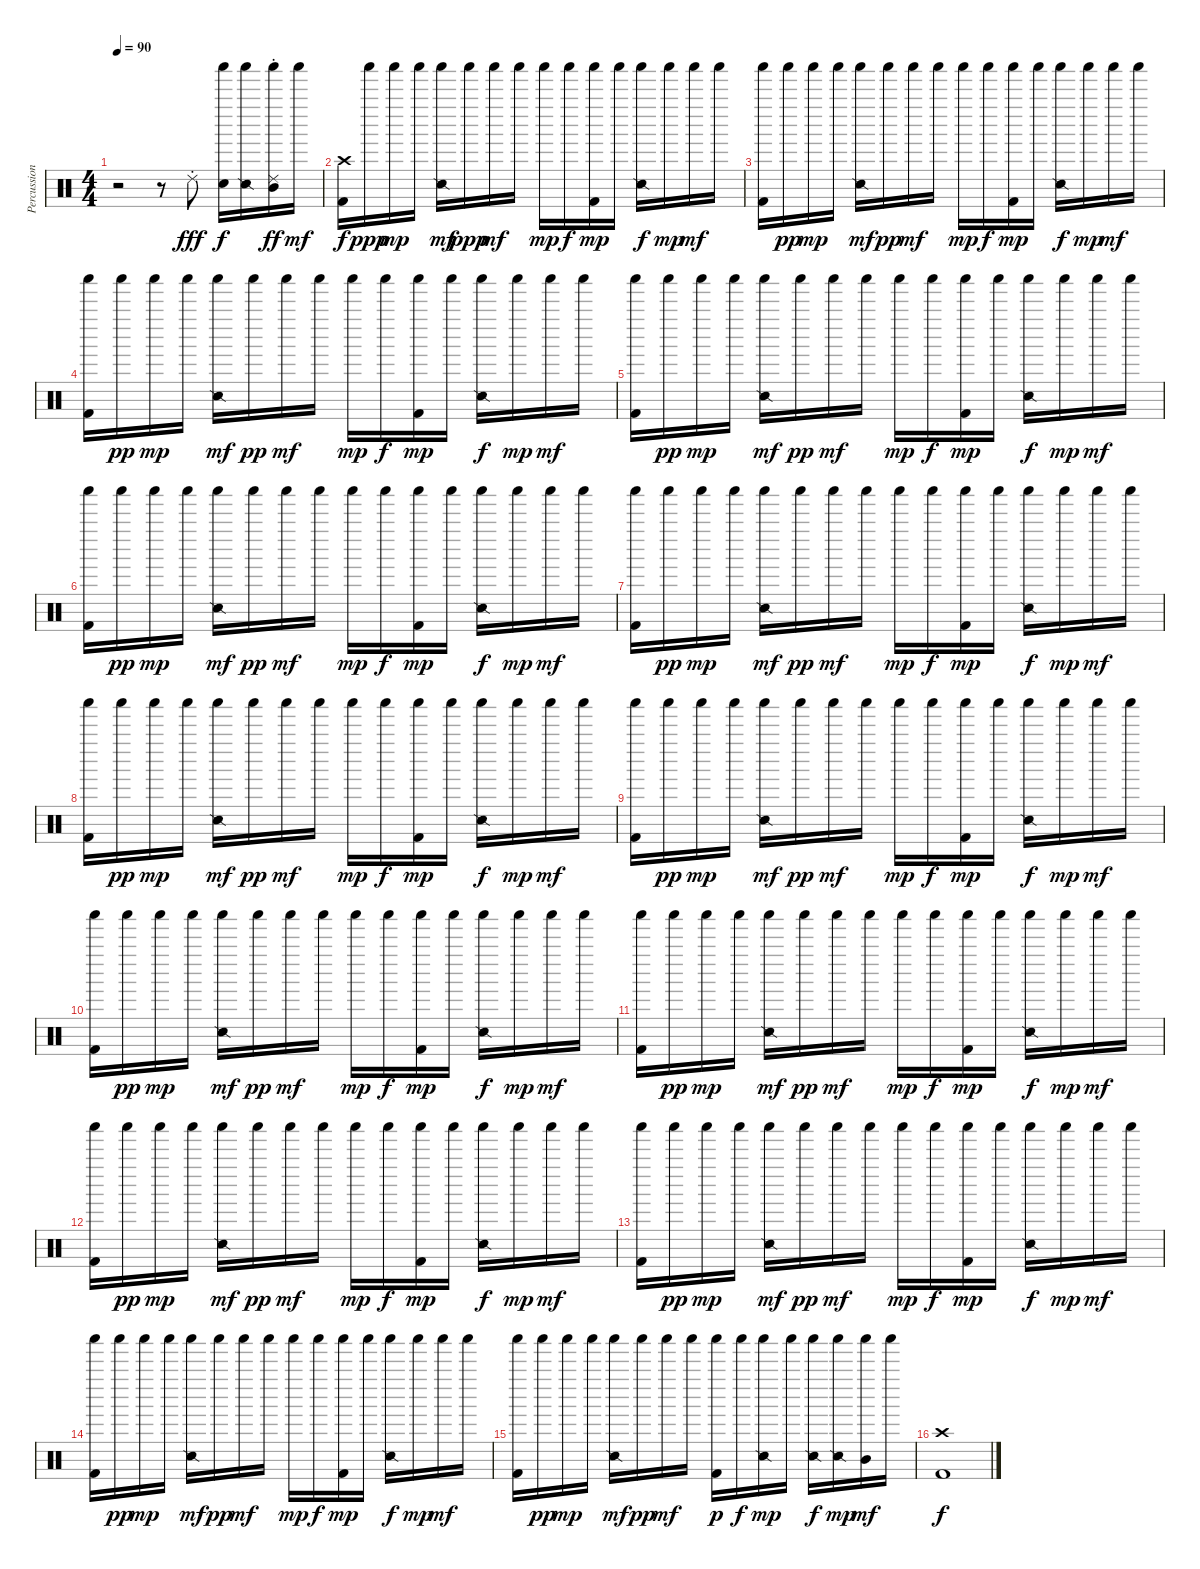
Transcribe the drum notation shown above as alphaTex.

\track ("Percussions" "Percussion") {instrument percussion}
\staff {score}
\articulation defaults
\ts (4 4)
\tempo 90
\clef neutral
\ks c
r.2{dy fff} r.8 "Ride (choke) 2".8 ("Shaker (hit)" "Metronome (bell)").16{dy f} ("Shaker (hit)" "Snare (side stick) 2").16 ("Shaker (hit)" "Ride (choke) 2" "Mid Tom (hit)").16{dy ff} "Shaker (hit)".16{dy mf} |
("Crash high (hit)" "Kick (hit) 2").16{dy f} "Shaker (hit)".16{dy ppp} "Shaker (hit)".16{dy mp} "Shaker (hit)".16 ("Shaker (hit)" "Snare (side stick) 2").16{dy mf} "Shaker (hit)".16{dy ppp} "Shaker (hit)".16{dy mf} "Shaker (hit)".16 "Shaker (hit)".16{dy mp} "Shaker (hit)".16{dy f} ("Shaker (hit)" "Kick (hit) 2").16{dy mp} "Shaker (hit)".16 ("Shaker (hit)" "Snare (side stick) 2").16{dy f} "Shaker (hit)".16{dy mp} "Shaker (hit)".16{dy mf} "Shaker (hit)".16 |
("Shaker (hit)" "Kick (hit) 2").16 "Shaker (hit)".16{dy pp} "Shaker (hit)".16{dy mp} "Shaker (hit)".16 ("Shaker (hit)" "Snare (side stick) 2").16{dy mf} "Shaker (hit)".16{dy pp} "Shaker (hit)".16{dy mf} "Shaker (hit)".16 "Shaker (hit)".16{dy mp} "Shaker (hit)".16{dy f} ("Shaker (hit)" "Kick (hit) 2").16{dy mp} "Shaker (hit)".16 ("Shaker (hit)" "Snare (side stick) 2").16{dy f} "Shaker (hit)".16{dy mp} "Shaker (hit)".16{dy mf} "Shaker (hit)".16 |
("Shaker (hit)" "Kick (hit) 2").16 "Shaker (hit)".16{dy pp} "Shaker (hit)".16{dy mp} "Shaker (hit)".16 ("Shaker (hit)" "Snare (side stick) 2").16{dy mf} "Shaker (hit)".16{dy pp} "Shaker (hit)".16{dy mf} "Shaker (hit)".16 "Shaker (hit)".16{dy mp} "Shaker (hit)".16{dy f} ("Shaker (hit)" "Kick (hit) 2").16{dy mp} "Shaker (hit)".16 ("Shaker (hit)" "Snare (side stick) 2").16{dy f} "Shaker (hit)".16{dy mp} "Shaker (hit)".16{dy mf} "Shaker (hit)".16 |
("Shaker (hit)" "Kick (hit) 2").16 "Shaker (hit)".16{dy pp} "Shaker (hit)".16{dy mp} "Shaker (hit)".16 ("Shaker (hit)" "Snare (side stick) 2").16{dy mf} "Shaker (hit)".16{dy pp} "Shaker (hit)".16{dy mf} "Shaker (hit)".16 "Shaker (hit)".16{dy mp} "Shaker (hit)".16{dy f} ("Shaker (hit)" "Kick (hit) 2").16{dy mp} "Shaker (hit)".16 ("Shaker (hit)" "Snare (side stick) 2").16{dy f} "Shaker (hit)".16{dy mp} "Shaker (hit)".16{dy mf} "Shaker (hit)".16 |
("Shaker (hit)" "Kick (hit) 2").16 "Shaker (hit)".16{dy pp} "Shaker (hit)".16{dy mp} "Shaker (hit)".16 ("Shaker (hit)" "Snare (side stick) 2").16{dy mf} "Shaker (hit)".16{dy pp} "Shaker (hit)".16{dy mf} "Shaker (hit)".16 "Shaker (hit)".16{dy mp} "Shaker (hit)".16{dy f} ("Shaker (hit)" "Kick (hit) 2").16{dy mp} "Shaker (hit)".16 ("Shaker (hit)" "Snare (side stick) 2").16{dy f} "Shaker (hit)".16{dy mp} "Shaker (hit)".16{dy mf} "Shaker (hit)".16 |
("Shaker (hit)" "Kick (hit) 2").16 "Shaker (hit)".16{dy pp} "Shaker (hit)".16{dy mp} "Shaker (hit)".16 ("Shaker (hit)" "Snare (side stick) 2").16{dy mf} "Shaker (hit)".16{dy pp} "Shaker (hit)".16{dy mf} "Shaker (hit)".16 "Shaker (hit)".16{dy mp} "Shaker (hit)".16{dy f} ("Shaker (hit)" "Kick (hit) 2").16{dy mp} "Shaker (hit)".16 ("Shaker (hit)" "Snare (side stick) 2").16{dy f} "Shaker (hit)".16{dy mp} "Shaker (hit)".16{dy mf} "Shaker (hit)".16 |
("Shaker (hit)" "Kick (hit) 2").16 "Shaker (hit)".16{dy pp} "Shaker (hit)".16{dy mp} "Shaker (hit)".16 ("Shaker (hit)" "Snare (side stick) 2").16{dy mf} "Shaker (hit)".16{dy pp} "Shaker (hit)".16{dy mf} "Shaker (hit)".16 "Shaker (hit)".16{dy mp} "Shaker (hit)".16{dy f} ("Shaker (hit)" "Kick (hit) 2").16{dy mp} "Shaker (hit)".16 ("Shaker (hit)" "Snare (side stick) 2").16{dy f} "Shaker (hit)".16{dy mp} "Shaker (hit)".16{dy mf} "Shaker (hit)".16 |
("Shaker (hit)" "Kick (hit) 2").16 "Shaker (hit)".16{dy pp} "Shaker (hit)".16{dy mp} "Shaker (hit)".16 ("Shaker (hit)" "Snare (side stick) 2").16{dy mf} "Shaker (hit)".16{dy pp} "Shaker (hit)".16{dy mf} "Shaker (hit)".16 "Shaker (hit)".16{dy mp} "Shaker (hit)".16{dy f} ("Shaker (hit)" "Kick (hit) 2").16{dy mp} "Shaker (hit)".16 ("Shaker (hit)" "Snare (side stick) 2").16{dy f} "Shaker (hit)".16{dy mp} "Shaker (hit)".16{dy mf} "Shaker (hit)".16 |
("Shaker (hit)" "Kick (hit) 2").16 "Shaker (hit)".16{dy pp} "Shaker (hit)".16{dy mp} "Shaker (hit)".16 ("Shaker (hit)" "Snare (side stick) 2").16{dy mf} "Shaker (hit)".16{dy pp} "Shaker (hit)".16{dy mf} "Shaker (hit)".16 "Shaker (hit)".16{dy mp} "Shaker (hit)".16{dy f} ("Shaker (hit)" "Kick (hit) 2").16{dy mp} "Shaker (hit)".16 ("Shaker (hit)" "Snare (side stick) 2").16{dy f} "Shaker (hit)".16{dy mp} "Shaker (hit)".16{dy mf} "Shaker (hit)".16 |
("Shaker (hit)" "Kick (hit) 2").16 "Shaker (hit)".16{dy pp} "Shaker (hit)".16{dy mp} "Shaker (hit)".16 ("Shaker (hit)" "Snare (side stick) 2").16{dy mf} "Shaker (hit)".16{dy pp} "Shaker (hit)".16{dy mf} "Shaker (hit)".16 "Shaker (hit)".16{dy mp} "Shaker (hit)".16{dy f} ("Shaker (hit)" "Kick (hit) 2").16{dy mp} "Shaker (hit)".16 ("Shaker (hit)" "Snare (side stick) 2").16{dy f} "Shaker (hit)".16{dy mp} "Shaker (hit)".16{dy mf} "Shaker (hit)".16 |
("Shaker (hit)" "Kick (hit) 2").16 "Shaker (hit)".16{dy pp} "Shaker (hit)".16{dy mp} "Shaker (hit)".16 ("Shaker (hit)" "Snare (side stick) 2").16{dy mf} "Shaker (hit)".16{dy pp} "Shaker (hit)".16{dy mf} "Shaker (hit)".16 "Shaker (hit)".16{dy mp} "Shaker (hit)".16{dy f} ("Shaker (hit)" "Kick (hit) 2").16{dy mp} "Shaker (hit)".16 ("Shaker (hit)" "Snare (side stick) 2").16{dy f} "Shaker (hit)".16{dy mp} "Shaker (hit)".16{dy mf} "Shaker (hit)".16 |
("Shaker (hit)" "Kick (hit) 2").16 "Shaker (hit)".16{dy pp} "Shaker (hit)".16{dy mp} "Shaker (hit)".16 ("Shaker (hit)" "Snare (side stick) 2").16{dy mf} "Shaker (hit)".16{dy pp} "Shaker (hit)".16{dy mf} "Shaker (hit)".16 "Shaker (hit)".16{dy mp} "Shaker (hit)".16{dy f} ("Shaker (hit)" "Kick (hit) 2").16{dy mp} "Shaker (hit)".16 ("Shaker (hit)" "Snare (side stick) 2").16{dy f} "Shaker (hit)".16{dy mp} "Shaker (hit)".16{dy mf} "Shaker (hit)".16 |
("Shaker (hit)" "Kick (hit) 2").16 "Shaker (hit)".16{dy pp} "Shaker (hit)".16{dy mp} "Shaker (hit)".16 ("Shaker (hit)" "Snare (side stick) 2").16{dy mf} "Shaker (hit)".16{dy pp} "Shaker (hit)".16{dy mf} "Shaker (hit)".16 "Shaker (hit)".16{dy mp} "Shaker (hit)".16{dy f} ("Shaker (hit)" "Kick (hit) 2").16{dy mp} "Shaker (hit)".16 ("Shaker (hit)" "Snare (side stick) 2").16{dy f} "Shaker (hit)".16{dy mp} "Shaker (hit)".16{dy mf} "Shaker (hit)".16 |
("Shaker (hit)" "Kick (hit) 2").16 "Shaker (hit)".16{dy pp} "Shaker (hit)".16{dy mp} "Shaker (hit)".16 ("Shaker (hit)" "Snare (side stick) 2").16{dy mf} "Shaker (hit)".16{dy pp} "Shaker (hit)".16{dy mf} "Shaker (hit)".16 ("Shaker (hit)" "Kick (hit) 2").16{dy p} "Shaker (hit)".16{dy f} ("Shaker (hit)" "Snare (side stick) 2").16{dy mp} "Shaker (hit)".16 ("Shaker (hit)" "Snare (side stick) 2").16{dy f} ("Shaker (hit)" "Snare (side stick) 2").16{dy mp} ("Shaker (hit)" "Mid Tom (hit)").16{dy mf} "Shaker (hit)".16 |
("Crash high (hit)" "Kick (hit) 2").1{dy f}
